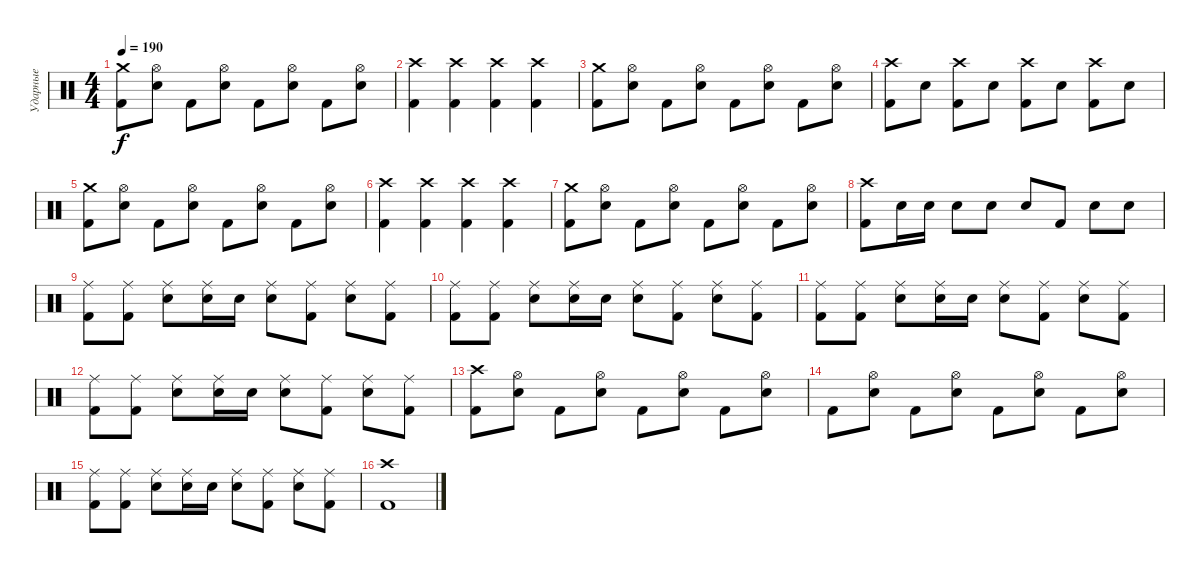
\track ("Ударные" "Ударные") {instrument percussion}
\staff {score}
\articulation defaults
\ts (4 4)
\tempo 190
\clef neutral
\ks c
("Crash medium (hit)" "Kick (hit) 2").8{dy f} ("Hi-Hat (open)" "Electric Snare (hit)").8 "Kick (hit) 2".8 ("Hi-Hat (open)" "Electric Snare (hit)").8 "Kick (hit) 2".8 ("Hi-Hat (open)" "Electric Snare (hit)").8 "Kick (hit) 2".8 ("Hi-Hat (open)" "Electric Snare (hit)").8 |
("Crash high (hit)" "Kick (hit) 2").4 ("Crash high (hit)" "Kick (hit) 2").4 ("Crash high (hit)" "Kick (hit) 2").4 ("Crash high (hit)" "Kick (hit) 2").4 |
("Crash medium (hit)" "Kick (hit) 2").8 ("Hi-Hat (open)" "Electric Snare (hit)").8 "Kick (hit) 2".8 ("Hi-Hat (open)" "Electric Snare (hit)").8 "Kick (hit) 2".8 ("Hi-Hat (open)" "Electric Snare (hit)").8 "Kick (hit) 2".8 ("Hi-Hat (open)" "Electric Snare (hit)").8 |
("Crash high (hit)" "Kick (hit) 2").8 "Electric Snare (hit)".8 ("Crash high (hit)" "Kick (hit) 2").8 "Electric Snare (hit)".8 ("Crash high (hit)" "Kick (hit) 2").8 "Electric Snare (hit)".8 ("Crash high (hit)" "Kick (hit) 2").8 "Electric Snare (hit)".8 |
("Crash medium (hit)" "Kick (hit) 2").8 ("Hi-Hat (open)" "Electric Snare (hit)").8 "Kick (hit) 2".8 ("Hi-Hat (open)" "Electric Snare (hit)").8 "Kick (hit) 2".8 ("Hi-Hat (open)" "Electric Snare (hit)").8 "Kick (hit) 2".8 ("Hi-Hat (open)" "Electric Snare (hit)").8 |
("Crash high (hit)" "Kick (hit) 2").4 ("Crash high (hit)" "Kick (hit) 2").4 ("Crash high (hit)" "Kick (hit) 2").4 ("Crash high (hit)" "Kick (hit) 2").4 |
("Crash medium (hit)" "Kick (hit) 2").8 ("Hi-Hat (open)" "Electric Snare (hit)").8 "Kick (hit) 2".8 ("Hi-Hat (open)" "Electric Snare (hit)").8 "Kick (hit) 2".8 ("Hi-Hat (open)" "Electric Snare (hit)").8 "Kick (hit) 2".8 ("Hi-Hat (open)" "Electric Snare (hit)").8 |
("Crash high (hit)" "Kick (hit) 2").8 "Electric Snare (hit)".16 "Electric Snare (hit)".16 "Electric Snare (hit)".8 "Electric Snare (hit)".8 "Electric Snare (hit)".8 "Kick (hit) 2".8 "Electric Snare (hit)".8 "Electric Snare (hit)".8 |
("Ride (middle)" "Kick (hit) 2").8 ("Ride (middle)" "Kick (hit) 2").8 ("Ride (middle)" "Electric Snare (hit)").8 ("Ride (middle)" "Electric Snare (hit)").16 "Electric Snare (hit)".16 ("Ride (middle)" "Electric Snare (hit)").8 ("Ride (middle)" "Kick (hit) 2").8 ("Ride (middle)" "Electric Snare (hit)").8 ("Ride (middle)" "Kick (hit) 2").8 |
("Ride (middle)" "Kick (hit) 2").8 ("Ride (middle)" "Kick (hit) 2").8 ("Ride (middle)" "Electric Snare (hit)").8 ("Ride (middle)" "Electric Snare (hit)").16 "Electric Snare (hit)".16 ("Ride (middle)" "Electric Snare (hit)").8 ("Ride (middle)" "Kick (hit) 2").8 ("Ride (middle)" "Electric Snare (hit)").8 ("Ride (middle)" "Kick (hit) 2").8 |
("Ride (middle)" "Kick (hit) 2").8 ("Ride (middle)" "Kick (hit) 2").8 ("Ride (middle)" "Electric Snare (hit)").8 ("Ride (middle)" "Electric Snare (hit)").16 "Electric Snare (hit)".16 ("Ride (middle)" "Electric Snare (hit)").8 ("Ride (middle)" "Kick (hit) 2").8 ("Ride (middle)" "Electric Snare (hit)").8 ("Ride (middle)" "Kick (hit) 2").8 |
("Ride (middle)" "Kick (hit) 2").8 ("Ride (middle)" "Kick (hit) 2").8 ("Ride (middle)" "Electric Snare (hit)").8 ("Ride (middle)" "Electric Snare (hit)").16 "Electric Snare (hit)".16 ("Ride (middle)" "Electric Snare (hit)").8 ("Ride (middle)" "Kick (hit) 2").8 ("Ride (middle)" "Electric Snare (hit)").8 ("Ride (middle)" "Kick (hit) 2").8 |
("Crash high (hit)" "Kick (hit) 2").8 ("Hi-Hat (open)" "Electric Snare (hit)").8 "Kick (hit) 2".8 ("Hi-Hat (open)" "Electric Snare (hit)").8 "Kick (hit) 2".8 ("Hi-Hat (open)" "Electric Snare (hit)").8 "Kick (hit) 2".8 ("Hi-Hat (open)" "Electric Snare (hit)").8 |
"Kick (hit) 2".8 ("Hi-Hat (open)" "Electric Snare (hit)").8 "Kick (hit) 2".8 ("Hi-Hat (open)" "Electric Snare (hit)").8 "Kick (hit) 2".8 ("Hi-Hat (open)" "Electric Snare (hit)").8 "Kick (hit) 2".8 ("Hi-Hat (open)" "Electric Snare (hit)").8 |
("Ride (middle)" "Kick (hit) 2").8 ("Ride (middle)" "Kick (hit) 2").8 ("Ride (middle)" "Electric Snare (hit)").8 ("Ride (middle)" "Electric Snare (hit)").16 "Electric Snare (hit)".16 ("Ride (middle)" "Electric Snare (hit)").8 ("Ride (middle)" "Kick (hit) 2").8 ("Ride (middle)" "Electric Snare (hit)").8 ("Ride (middle)" "Kick (hit) 2").8 |
("Crash high (hit)" "Kick (hit) 2").1
